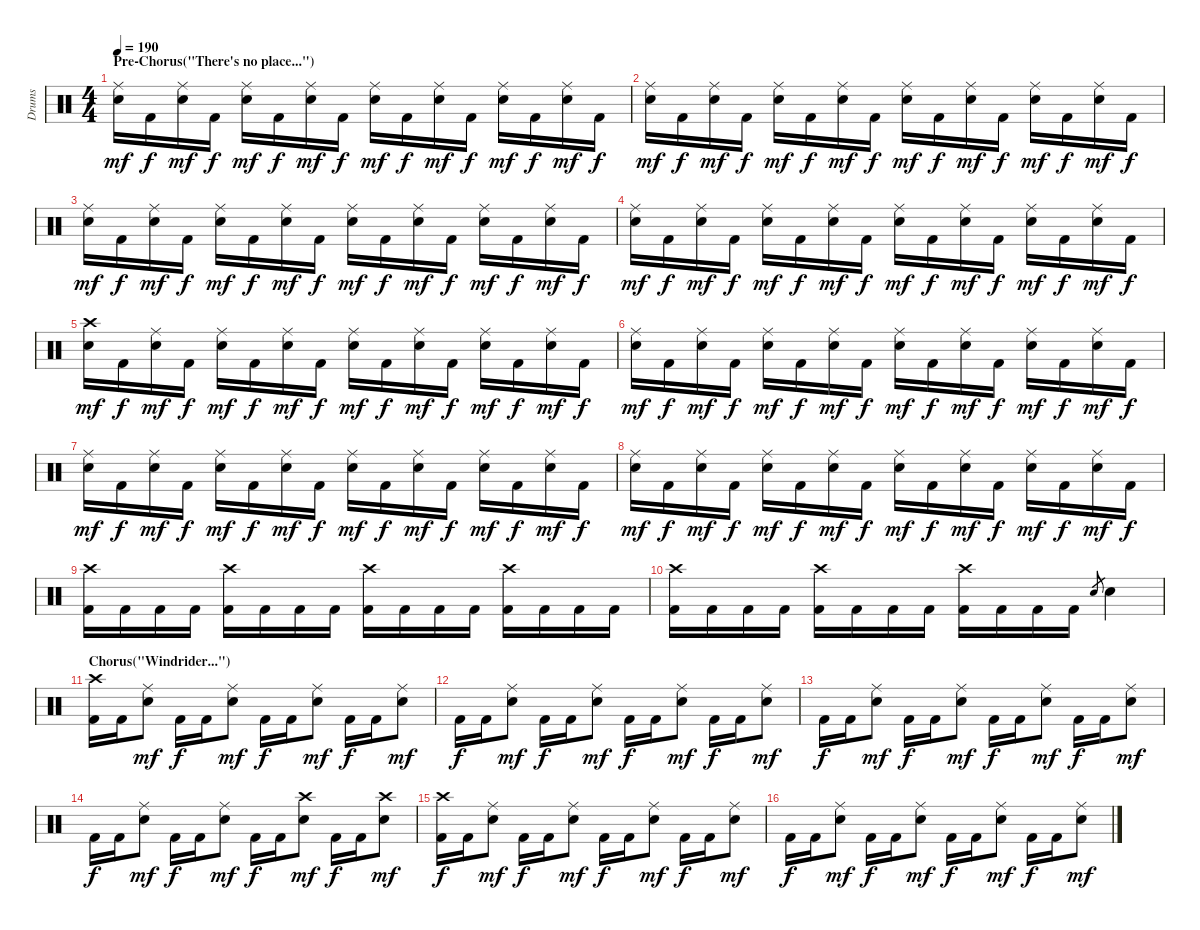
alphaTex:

\track ("Drums" "Drums") {instrument percussion}
\staff {score}
\articulation defaults
\ts (4 4)
\section ("" "Pre-Chorus(\"There's no place...\")")
\tempo 190
\clef neutral
\ks c
("Ride (middle)" "Snare (hit) 2").16{dy mf} "Kick (hit) 2".16{dy f} ("Ride (middle)" "Snare (hit) 2").16{dy mf} "Kick (hit) 2".16{dy f} ("Ride (middle)" "Snare (hit) 2").16{dy mf} "Kick (hit) 2".16{dy f} ("Ride (middle)" "Snare (hit) 2").16{dy mf} "Kick (hit) 2".16{dy f} ("Ride (middle)" "Snare (hit) 2").16{dy mf} "Kick (hit) 2".16{dy f} ("Ride (middle)" "Snare (hit) 2").16{dy mf} "Kick (hit) 2".16{dy f} ("Ride (middle)" "Snare (hit) 2").16{dy mf} "Kick (hit) 2".16{dy f} ("Ride (middle)" "Snare (hit) 2").16{dy mf} "Kick (hit) 2".16{dy f} |
("Ride (middle)" "Snare (hit) 2").16{dy mf} "Kick (hit) 2".16{dy f} ("Ride (middle)" "Snare (hit) 2").16{dy mf} "Kick (hit) 2".16{dy f} ("Ride (middle)" "Snare (hit) 2").16{dy mf} "Kick (hit) 2".16{dy f} ("Ride (middle)" "Snare (hit) 2").16{dy mf} "Kick (hit) 2".16{dy f} ("Ride (middle)" "Snare (hit) 2").16{dy mf} "Kick (hit) 2".16{dy f} ("Ride (middle)" "Snare (hit) 2").16{dy mf} "Kick (hit) 2".16{dy f} ("Ride (middle)" "Snare (hit) 2").16{dy mf} "Kick (hit) 2".16{dy f} ("Ride (middle)" "Snare (hit) 2").16{dy mf} "Kick (hit) 2".16{dy f} |
("Ride (middle)" "Snare (hit) 2").16{dy mf} "Kick (hit) 2".16{dy f} ("Ride (middle)" "Snare (hit) 2").16{dy mf} "Kick (hit) 2".16{dy f} ("Ride (middle)" "Snare (hit) 2").16{dy mf} "Kick (hit) 2".16{dy f} ("Ride (middle)" "Snare (hit) 2").16{dy mf} "Kick (hit) 2".16{dy f} ("Ride (middle)" "Snare (hit) 2").16{dy mf} "Kick (hit) 2".16{dy f} ("Ride (middle)" "Snare (hit) 2").16{dy mf} "Kick (hit) 2".16{dy f} ("Ride (middle)" "Snare (hit) 2").16{dy mf} "Kick (hit) 2".16{dy f} ("Ride (middle)" "Snare (hit) 2").16{dy mf} "Kick (hit) 2".16{dy f} |
("Ride (middle)" "Snare (hit) 2").16{dy mf} "Kick (hit) 2".16{dy f} ("Ride (middle)" "Snare (hit) 2").16{dy mf} "Kick (hit) 2".16{dy f} ("Ride (middle)" "Snare (hit) 2").16{dy mf} "Kick (hit) 2".16{dy f} ("Ride (middle)" "Snare (hit) 2").16{dy mf} "Kick (hit) 2".16{dy f} ("Ride (middle)" "Snare (hit) 2").16{dy mf} "Kick (hit) 2".16{dy f} ("Ride (middle)" "Snare (hit) 2").16{dy mf} "Kick (hit) 2".16{dy f} ("Ride (middle)" "Snare (hit) 2").16{dy mf} "Kick (hit) 2".16{dy f} ("Ride (middle)" "Snare (hit) 2").16{dy mf} "Kick (hit) 2".16{dy f} |
("Crash high (hit)" "Snare (hit) 2").16{dy mf} "Kick (hit) 2".16{dy f} ("Ride (middle)" "Snare (hit) 2").16{dy mf} "Kick (hit) 2".16{dy f} ("Ride (middle)" "Snare (hit) 2").16{dy mf} "Kick (hit) 2".16{dy f} ("Ride (middle)" "Snare (hit) 2").16{dy mf} "Kick (hit) 2".16{dy f} ("Ride (middle)" "Snare (hit) 2").16{dy mf} "Kick (hit) 2".16{dy f} ("Ride (middle)" "Snare (hit) 2").16{dy mf} "Kick (hit) 2".16{dy f} ("Ride (middle)" "Snare (hit) 2").16{dy mf} "Kick (hit) 2".16{dy f} ("Ride (middle)" "Snare (hit) 2").16{dy mf} "Kick (hit) 2".16{dy f} |
("Ride (middle)" "Snare (hit) 2").16{dy mf} "Kick (hit) 2".16{dy f} ("Ride (middle)" "Snare (hit) 2").16{dy mf} "Kick (hit) 2".16{dy f} ("Ride (middle)" "Snare (hit) 2").16{dy mf} "Kick (hit) 2".16{dy f} ("Ride (middle)" "Snare (hit) 2").16{dy mf} "Kick (hit) 2".16{dy f} ("Ride (middle)" "Snare (hit) 2").16{dy mf} "Kick (hit) 2".16{dy f} ("Ride (middle)" "Snare (hit) 2").16{dy mf} "Kick (hit) 2".16{dy f} ("Ride (middle)" "Snare (hit) 2").16{dy mf} "Kick (hit) 2".16{dy f} ("Ride (middle)" "Snare (hit) 2").16{dy mf} "Kick (hit) 2".16{dy f} |
("Ride (middle)" "Snare (hit) 2").16{dy mf} "Kick (hit) 2".16{dy f} ("Ride (middle)" "Snare (hit) 2").16{dy mf} "Kick (hit) 2".16{dy f} ("Ride (middle)" "Snare (hit) 2").16{dy mf} "Kick (hit) 2".16{dy f} ("Ride (middle)" "Snare (hit) 2").16{dy mf} "Kick (hit) 2".16{dy f} ("Ride (middle)" "Snare (hit) 2").16{dy mf} "Kick (hit) 2".16{dy f} ("Ride (middle)" "Snare (hit) 2").16{dy mf} "Kick (hit) 2".16{dy f} ("Ride (middle)" "Snare (hit) 2").16{dy mf} "Kick (hit) 2".16{dy f} ("Ride (middle)" "Snare (hit) 2").16{dy mf} "Kick (hit) 2".16{dy f} |
("Ride (middle)" "Snare (hit) 2").16{dy mf} "Kick (hit) 2".16{dy f} ("Ride (middle)" "Snare (hit) 2").16{dy mf} "Kick (hit) 2".16{dy f} ("Ride (middle)" "Snare (hit) 2").16{dy mf} "Kick (hit) 2".16{dy f} ("Ride (middle)" "Snare (hit) 2").16{dy mf} "Kick (hit) 2".16{dy f} ("Ride (middle)" "Snare (hit) 2").16{dy mf} "Kick (hit) 2".16{dy f} ("Ride (middle)" "Snare (hit) 2").16{dy mf} "Kick (hit) 2".16{dy f} ("Ride (middle)" "Snare (hit) 2").16{dy mf} "Kick (hit) 2".16{dy f} ("Ride (middle)" "Snare (hit) 2").16{dy mf} "Kick (hit) 2".16{dy f} |
("Crash high (hit)" "Kick (hit) 2").16 "Kick (hit) 2".16 "Kick (hit) 2".16 "Kick (hit) 2".16 ("Crash high (hit)" "Kick (hit) 2").16 "Kick (hit) 2".16 "Kick (hit) 2".16 "Kick (hit) 2".16 ("Crash high (hit)" "Kick (hit) 2").16 "Kick (hit) 2".16 "Kick (hit) 2".16 "Kick (hit) 2".16 ("Crash high (hit)" "Kick (hit) 2").16 "Kick (hit) 2".16 "Kick (hit) 2".16 "Kick (hit) 2".16 |
("Crash high (hit)" "Kick (hit) 2").16 "Kick (hit) 2".16 "Kick (hit) 2".16 "Kick (hit) 2".16 ("Crash high (hit)" "Kick (hit) 2").16 "Kick (hit) 2".16 "Kick (hit) 2".16 "Kick (hit) 2".16 ("Crash high (hit)" "Kick (hit) 2").16 "Kick (hit) 2".16 "Kick (hit) 2".16 "Kick (hit) 2".16 "Snare (hit) 2".8{gr} "Snare (hit) 2".4 |
\section ("" "Chorus(\"Windrider...\")")
("Crash high (hit)" "Kick (hit) 2").16 "Kick (hit) 2".16 ("Ride (middle)" "Snare (hit) 2").8{dy mf} "Kick (hit) 2".16{dy f} "Kick (hit) 2".16 ("Ride (middle)" "Snare (hit) 2").8{dy mf} "Kick (hit) 2".16{dy f} "Kick (hit) 2".16 ("Ride (middle)" "Snare (hit) 2").8{dy mf} "Kick (hit) 2".16{dy f} "Kick (hit) 2".16 ("Ride (middle)" "Snare (hit) 2").8{dy mf} |
"Kick (hit) 2".16{dy f} "Kick (hit) 2".16 ("Ride (middle)" "Snare (hit) 2").8{dy mf} "Kick (hit) 2".16{dy f} "Kick (hit) 2".16 ("Ride (middle)" "Snare (hit) 2").8{dy mf} "Kick (hit) 2".16{dy f} "Kick (hit) 2".16 ("Ride (middle)" "Snare (hit) 2").8{dy mf} "Kick (hit) 2".16{dy f} "Kick (hit) 2".16 ("Ride (middle)" "Snare (hit) 2").8{dy mf} |
"Kick (hit) 2".16{dy f} "Kick (hit) 2".16 ("Ride (middle)" "Snare (hit) 2").8{dy mf} "Kick (hit) 2".16{dy f} "Kick (hit) 2".16 ("Ride (middle)" "Snare (hit) 2").8{dy mf} "Kick (hit) 2".16{dy f} "Kick (hit) 2".16 ("Ride (middle)" "Snare (hit) 2").8{dy mf} "Kick (hit) 2".16{dy f} "Kick (hit) 2".16 ("Ride (middle)" "Snare (hit) 2").8{dy mf} |
"Kick (hit) 2".16{dy f} "Kick (hit) 2".16 ("Ride (middle)" "Snare (hit) 2").8{dy mf} "Kick (hit) 2".16{dy f} "Kick (hit) 2".16 ("Ride (middle)" "Snare (hit) 2").8{dy mf} "Kick (hit) 2".16{dy f} "Kick (hit) 2".16 ("Crash high (hit)" "Snare (hit) 2").8{dy mf} "Kick (hit) 2".16{dy f} "Kick (hit) 2".16 ("Crash high (hit)" "Snare (hit) 2").8{dy mf} |
("Crash high (hit)" "Kick (hit) 2").16{dy f} "Kick (hit) 2".16 ("Ride (middle)" "Snare (hit) 2").8{dy mf} "Kick (hit) 2".16{dy f} "Kick (hit) 2".16 ("Ride (middle)" "Snare (hit) 2").8{dy mf} "Kick (hit) 2".16{dy f} "Kick (hit) 2".16 ("Ride (middle)" "Snare (hit) 2").8{dy mf} "Kick (hit) 2".16{dy f} "Kick (hit) 2".16 ("Ride (middle)" "Snare (hit) 2").8{dy mf} |
"Kick (hit) 2".16{dy f} "Kick (hit) 2".16 ("Ride (middle)" "Snare (hit) 2").8{dy mf} "Kick (hit) 2".16{dy f} "Kick (hit) 2".16 ("Ride (middle)" "Snare (hit) 2").8{dy mf} "Kick (hit) 2".16{dy f} "Kick (hit) 2".16 ("Ride (middle)" "Snare (hit) 2").8{dy mf} "Kick (hit) 2".16{dy f} "Kick (hit) 2".16 ("Ride (middle)" "Snare (hit) 2").8{dy mf}
